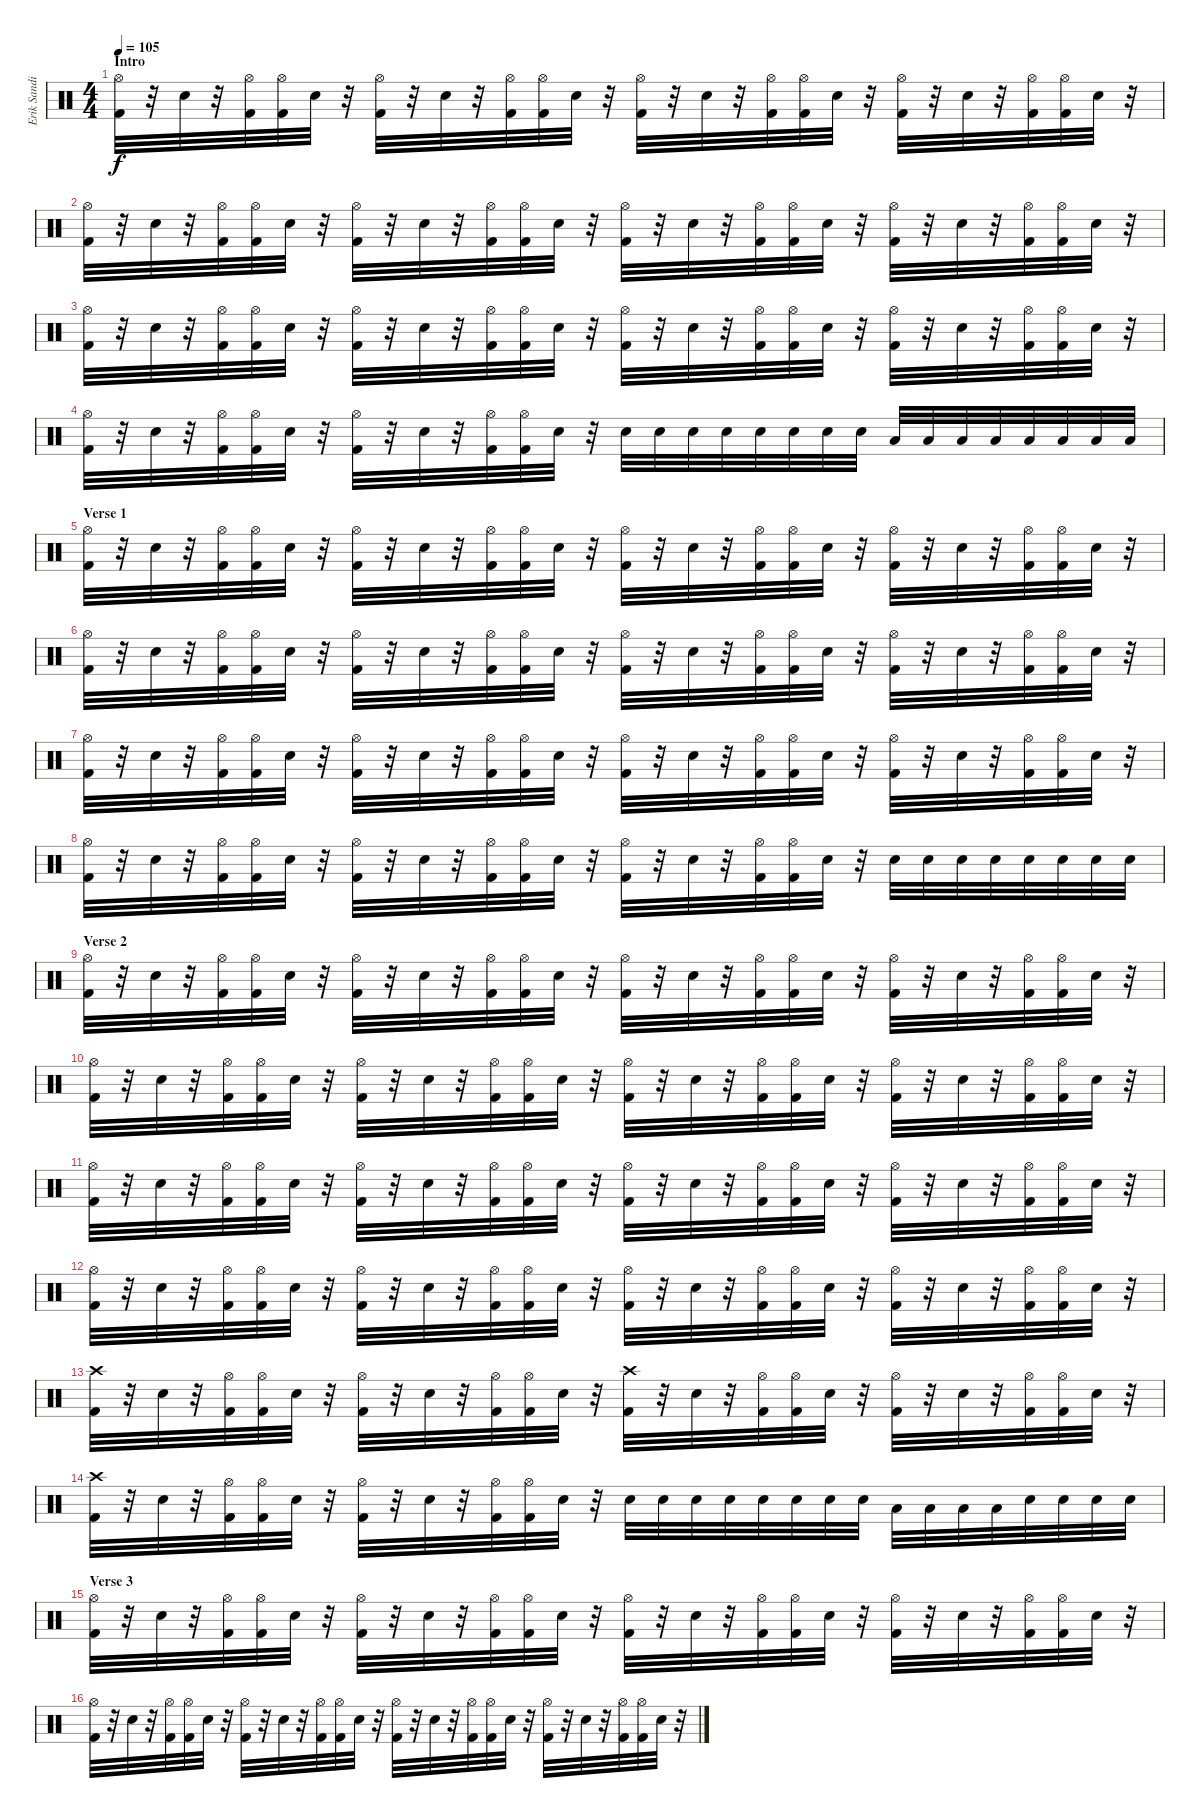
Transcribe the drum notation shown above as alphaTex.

\track ("Erik Sandin" "Erik Sandi") {instrument percussion}
\staff {score}
\articulation defaults
\ts (4 4)
\section ("" "Intro")
\tempo 105
\clef neutral
\ks c
("Hi-Hat (open)" "Kick (hit) 2").32{dy f} r.32 "Snare (hit) 2".32 r.32 ("Hi-Hat (open)" "Kick (hit) 2").32 ("Hi-Hat (open)" "Kick (hit) 2").32 "Snare (hit) 2".32 r.32 ("Hi-Hat (open)" "Kick (hit) 2").32 r.32 "Snare (hit) 2".32 r.32 ("Hi-Hat (open)" "Kick (hit) 2").32 ("Hi-Hat (open)" "Kick (hit) 2").32 "Snare (hit) 2".32 r.32 ("Hi-Hat (open)" "Kick (hit) 2").32 r.32 "Snare (hit) 2".32 r.32 ("Hi-Hat (open)" "Kick (hit) 2").32 ("Hi-Hat (open)" "Kick (hit) 2").32 "Snare (hit) 2".32 r.32 ("Hi-Hat (open)" "Kick (hit) 2").32 r.32 "Snare (hit) 2".32 r.32 ("Hi-Hat (open)" "Kick (hit) 2").32 ("Hi-Hat (open)" "Kick (hit) 2").32 "Snare (hit) 2".32 r.32 |
("Hi-Hat (open)" "Kick (hit) 2").32 r.32 "Snare (hit) 2".32 r.32 ("Hi-Hat (open)" "Kick (hit) 2").32 ("Hi-Hat (open)" "Kick (hit) 2").32 "Snare (hit) 2".32 r.32 ("Hi-Hat (open)" "Kick (hit) 2").32 r.32 "Snare (hit) 2".32 r.32 ("Hi-Hat (open)" "Kick (hit) 2").32 ("Hi-Hat (open)" "Kick (hit) 2").32 "Snare (hit) 2".32 r.32 ("Hi-Hat (open)" "Kick (hit) 2").32 r.32 "Snare (hit) 2".32 r.32 ("Hi-Hat (open)" "Kick (hit) 2").32 ("Hi-Hat (open)" "Kick (hit) 2").32 "Snare (hit) 2".32 r.32 ("Hi-Hat (open)" "Kick (hit) 2").32 r.32 "Snare (hit) 2".32 r.32 ("Hi-Hat (open)" "Kick (hit) 2").32 ("Hi-Hat (open)" "Kick (hit) 2").32 "Snare (hit) 2".32 r.32 |
("Hi-Hat (open)" "Kick (hit) 2").32 r.32 "Snare (hit) 2".32 r.32 ("Hi-Hat (open)" "Kick (hit) 2").32 ("Hi-Hat (open)" "Kick (hit) 2").32 "Snare (hit) 2".32 r.32 ("Hi-Hat (open)" "Kick (hit) 2").32 r.32 "Snare (hit) 2".32 r.32 ("Hi-Hat (open)" "Kick (hit) 2").32 ("Hi-Hat (open)" "Kick (hit) 2").32 "Snare (hit) 2".32 r.32 ("Hi-Hat (open)" "Kick (hit) 2").32 r.32 "Snare (hit) 2".32 r.32 ("Hi-Hat (open)" "Kick (hit) 2").32 ("Hi-Hat (open)" "Kick (hit) 2").32 "Snare (hit) 2".32 r.32 ("Hi-Hat (open)" "Kick (hit) 2").32 r.32 "Snare (hit) 2".32 r.32 ("Hi-Hat (open)" "Kick (hit) 2").32 ("Hi-Hat (open)" "Kick (hit) 2").32 "Snare (hit) 2".32 r.32 |
("Hi-Hat (open)" "Kick (hit) 2").32 r.32 "Snare (hit) 2".32 r.32 ("Hi-Hat (open)" "Kick (hit) 2").32 ("Hi-Hat (open)" "Kick (hit) 2").32 "Snare (hit) 2".32 r.32 ("Hi-Hat (open)" "Kick (hit) 2").32 r.32 "Snare (hit) 2".32 r.32 ("Hi-Hat (open)" "Kick (hit) 2").32 ("Hi-Hat (open)" "Kick (hit) 2").32 "Snare (hit) 2".32 r.32 "Snare (hit) 2".32 "Snare (hit) 2".32 "Snare (hit) 2".32 "Snare (hit) 2".32 "Snare (hit) 2".32 "Snare (hit) 2".32 "Snare (hit) 2".32 "Snare (hit) 2".32 "Low Tom (hit)".32 "Low Tom (hit)".32 "Low Tom (hit)".32 "Low Tom (hit)".32 "Low Tom (hit)".32 "Low Tom (hit)".32 "Low Tom (hit)".32 "Low Tom (hit)".32 |
\section ("" "Verse 1")
("Hi-Hat (open)" "Kick (hit) 2").32 r.32 "Snare (hit) 2".32 r.32 ("Hi-Hat (open)" "Kick (hit) 2").32 ("Hi-Hat (open)" "Kick (hit) 2").32 "Snare (hit) 2".32 r.32 ("Hi-Hat (open)" "Kick (hit) 2").32 r.32 "Snare (hit) 2".32 r.32 ("Hi-Hat (open)" "Kick (hit) 2").32 ("Hi-Hat (open)" "Kick (hit) 2").32 "Snare (hit) 2".32 r.32 ("Hi-Hat (open)" "Kick (hit) 2").32 r.32 "Snare (hit) 2".32 r.32 ("Hi-Hat (open)" "Kick (hit) 2").32 ("Hi-Hat (open)" "Kick (hit) 2").32 "Snare (hit) 2".32 r.32 ("Hi-Hat (open)" "Kick (hit) 2").32 r.32 "Snare (hit) 2".32 r.32 ("Hi-Hat (open)" "Kick (hit) 2").32 ("Hi-Hat (open)" "Kick (hit) 2").32 "Snare (hit) 2".32 r.32 |
("Hi-Hat (open)" "Kick (hit) 2").32 r.32 "Snare (hit) 2".32 r.32 ("Hi-Hat (open)" "Kick (hit) 2").32 ("Hi-Hat (open)" "Kick (hit) 2").32 "Snare (hit) 2".32 r.32 ("Hi-Hat (open)" "Kick (hit) 2").32 r.32 "Snare (hit) 2".32 r.32 ("Hi-Hat (open)" "Kick (hit) 2").32 ("Hi-Hat (open)" "Kick (hit) 2").32 "Snare (hit) 2".32 r.32 ("Hi-Hat (open)" "Kick (hit) 2").32 r.32 "Snare (hit) 2".32 r.32 ("Hi-Hat (open)" "Kick (hit) 2").32 ("Hi-Hat (open)" "Kick (hit) 2").32 "Snare (hit) 2".32 r.32 ("Hi-Hat (open)" "Kick (hit) 2").32 r.32 "Snare (hit) 2".32 r.32 ("Hi-Hat (open)" "Kick (hit) 2").32 ("Hi-Hat (open)" "Kick (hit) 2").32 "Snare (hit) 2".32 r.32 |
("Hi-Hat (open)" "Kick (hit) 2").32 r.32 "Snare (hit) 2".32 r.32 ("Hi-Hat (open)" "Kick (hit) 2").32 ("Hi-Hat (open)" "Kick (hit) 2").32 "Snare (hit) 2".32 r.32 ("Hi-Hat (open)" "Kick (hit) 2").32 r.32 "Snare (hit) 2".32 r.32 ("Hi-Hat (open)" "Kick (hit) 2").32 ("Hi-Hat (open)" "Kick (hit) 2").32 "Snare (hit) 2".32 r.32 ("Hi-Hat (open)" "Kick (hit) 2").32 r.32 "Snare (hit) 2".32 r.32 ("Hi-Hat (open)" "Kick (hit) 2").32 ("Hi-Hat (open)" "Kick (hit) 2").32 "Snare (hit) 2".32 r.32 ("Hi-Hat (open)" "Kick (hit) 2").32 r.32 "Snare (hit) 2".32 r.32 ("Hi-Hat (open)" "Kick (hit) 2").32 ("Hi-Hat (open)" "Kick (hit) 2").32 "Snare (hit) 2".32 r.32 |
("Hi-Hat (open)" "Kick (hit) 2").32 r.32 "Snare (hit) 2".32 r.32 ("Hi-Hat (open)" "Kick (hit) 2").32 ("Hi-Hat (open)" "Kick (hit) 2").32 "Snare (hit) 2".32 r.32 ("Hi-Hat (open)" "Kick (hit) 2").32 r.32 "Snare (hit) 2".32 r.32 ("Hi-Hat (open)" "Kick (hit) 2").32 ("Hi-Hat (open)" "Kick (hit) 2").32 "Snare (hit) 2".32 r.32 ("Hi-Hat (open)" "Kick (hit) 2").32 r.32 "Snare (hit) 2".32 r.32 ("Hi-Hat (open)" "Kick (hit) 2").32 ("Hi-Hat (open)" "Kick (hit) 2").32 "Snare (hit) 2".32 r.32 "Snare (hit) 2".32 "Snare (hit) 2".32 "Snare (hit) 2".32 "Snare (hit) 2".32 "Snare (hit) 2".32 "Snare (hit) 2".32 "Snare (hit) 2".32 "Snare (hit) 2".32 |
\section ("" "Verse 2")
("Hi-Hat (open)" "Kick (hit) 2").32 r.32 "Snare (hit) 2".32 r.32 ("Hi-Hat (open)" "Kick (hit) 2").32 ("Hi-Hat (open)" "Kick (hit) 2").32 "Snare (hit) 2".32 r.32 ("Hi-Hat (open)" "Kick (hit) 2").32 r.32 "Snare (hit) 2".32 r.32 ("Hi-Hat (open)" "Kick (hit) 2").32 ("Hi-Hat (open)" "Kick (hit) 2").32 "Snare (hit) 2".32 r.32 ("Hi-Hat (open)" "Kick (hit) 2").32 r.32 "Snare (hit) 2".32 r.32 ("Hi-Hat (open)" "Kick (hit) 2").32 ("Hi-Hat (open)" "Kick (hit) 2").32 "Snare (hit) 2".32 r.32 ("Hi-Hat (open)" "Kick (hit) 2").32 r.32 "Snare (hit) 2".32 r.32 ("Hi-Hat (open)" "Kick (hit) 2").32 ("Hi-Hat (open)" "Kick (hit) 2").32 "Snare (hit) 2".32 r.32 |
("Hi-Hat (open)" "Kick (hit) 2").32 r.32 "Snare (hit) 2".32 r.32 ("Hi-Hat (open)" "Kick (hit) 2").32 ("Hi-Hat (open)" "Kick (hit) 2").32 "Snare (hit) 2".32 r.32 ("Hi-Hat (open)" "Kick (hit) 2").32 r.32 "Snare (hit) 2".32 r.32 ("Hi-Hat (open)" "Kick (hit) 2").32 ("Hi-Hat (open)" "Kick (hit) 2").32 "Snare (hit) 2".32 r.32 ("Hi-Hat (open)" "Kick (hit) 2").32 r.32 "Snare (hit) 2".32 r.32 ("Hi-Hat (open)" "Kick (hit) 2").32 ("Hi-Hat (open)" "Kick (hit) 2").32 "Snare (hit) 2".32 r.32 ("Hi-Hat (open)" "Kick (hit) 2").32 r.32 "Snare (hit) 2".32 r.32 ("Hi-Hat (open)" "Kick (hit) 2").32 ("Hi-Hat (open)" "Kick (hit) 2").32 "Snare (hit) 2".32 r.32 |
("Hi-Hat (open)" "Kick (hit) 2").32 r.32 "Snare (hit) 2".32 r.32 ("Hi-Hat (open)" "Kick (hit) 2").32 ("Hi-Hat (open)" "Kick (hit) 2").32 "Snare (hit) 2".32 r.32 ("Hi-Hat (open)" "Kick (hit) 2").32 r.32 "Snare (hit) 2".32 r.32 ("Hi-Hat (open)" "Kick (hit) 2").32 ("Hi-Hat (open)" "Kick (hit) 2").32 "Snare (hit) 2".32 r.32 ("Hi-Hat (open)" "Kick (hit) 2").32 r.32 "Snare (hit) 2".32 r.32 ("Hi-Hat (open)" "Kick (hit) 2").32 ("Hi-Hat (open)" "Kick (hit) 2").32 "Snare (hit) 2".32 r.32 ("Hi-Hat (open)" "Kick (hit) 2").32 r.32 "Snare (hit) 2".32 r.32 ("Hi-Hat (open)" "Kick (hit) 2").32 ("Hi-Hat (open)" "Kick (hit) 2").32 "Snare (hit) 2".32 r.32 |
("Hi-Hat (open)" "Kick (hit) 2").32 r.32 "Snare (hit) 2".32 r.32 ("Hi-Hat (open)" "Kick (hit) 2").32 ("Hi-Hat (open)" "Kick (hit) 2").32 "Snare (hit) 2".32 r.32 ("Hi-Hat (open)" "Kick (hit) 2").32 r.32 "Snare (hit) 2".32 r.32 ("Hi-Hat (open)" "Kick (hit) 2").32 ("Hi-Hat (open)" "Kick (hit) 2").32 "Snare (hit) 2".32 r.32 ("Hi-Hat (open)" "Kick (hit) 2").32 r.32 "Snare (hit) 2".32 r.32 ("Hi-Hat (open)" "Kick (hit) 2").32 ("Hi-Hat (open)" "Kick (hit) 2").32 "Snare (hit) 2".32 r.32 ("Hi-Hat (open)" "Kick (hit) 2").32 r.32 "Snare (hit) 2".32 r.32 ("Hi-Hat (open)" "Kick (hit) 2").32 ("Hi-Hat (open)" "Kick (hit) 2").32 "Snare (hit) 2".32 r.32 |
("Crash high (hit)" "Kick (hit) 2").32 r.32 "Snare (hit) 2".32 r.32 ("Hi-Hat (open)" "Kick (hit) 2").32 ("Hi-Hat (open)" "Kick (hit) 2").32 "Snare (hit) 2".32 r.32 ("Hi-Hat (open)" "Kick (hit) 2").32 r.32 "Snare (hit) 2".32 r.32 ("Hi-Hat (open)" "Kick (hit) 2").32 ("Hi-Hat (open)" "Kick (hit) 2").32 "Snare (hit) 2".32 r.32 ("Crash high (hit)" "Kick (hit) 2").32 r.32 "Snare (hit) 2".32 r.32 ("Hi-Hat (open)" "Kick (hit) 2").32 ("Hi-Hat (open)" "Kick (hit) 2").32 "Snare (hit) 2".32 r.32 ("Hi-Hat (open)" "Kick (hit) 2").32 r.32 "Snare (hit) 2".32 r.32 ("Hi-Hat (open)" "Kick (hit) 2").32 ("Hi-Hat (open)" "Kick (hit) 2").32 "Snare (hit) 2".32 r.32 |
("Crash high (hit)" "Kick (hit) 2").32 r.32 "Snare (hit) 2".32 r.32 ("Hi-Hat (open)" "Kick (hit) 2").32 ("Hi-Hat (open)" "Kick (hit) 2").32 "Snare (hit) 2".32 r.32 ("Hi-Hat (open)" "Kick (hit) 2").32 r.32 "Snare (hit) 2".32 r.32 ("Hi-Hat (open)" "Kick (hit) 2").32 ("Hi-Hat (open)" "Kick (hit) 2").32 "Snare (hit) 2".32 r.32 "Snare (hit) 2".32 "Snare (hit) 2".32 "Snare (hit) 2".32 "Snare (hit) 2".32 "Snare (hit) 2".32 "Snare (hit) 2".32 "Snare (hit) 2".32 "Snare (hit) 2".32 "Low Tom (hit)".32 "Low Tom (hit)".32 "Low Tom (hit)".32 "Low Tom (hit)".32 "Snare (hit) 2".32 "Snare (hit) 2".32 "Snare (hit) 2".32 "Snare (hit) 2".32 |
\section ("" "Verse 3")
("Hi-Hat (open)" "Kick (hit) 2").32 r.32 "Snare (hit) 2".32 r.32 ("Hi-Hat (open)" "Kick (hit) 2").32 ("Hi-Hat (open)" "Kick (hit) 2").32 "Snare (hit) 2".32 r.32 ("Hi-Hat (open)" "Kick (hit) 2").32 r.32 "Snare (hit) 2".32 r.32 ("Hi-Hat (open)" "Kick (hit) 2").32 ("Hi-Hat (open)" "Kick (hit) 2").32 "Snare (hit) 2".32 r.32 ("Hi-Hat (open)" "Kick (hit) 2").32 r.32 "Snare (hit) 2".32 r.32 ("Hi-Hat (open)" "Kick (hit) 2").32 ("Hi-Hat (open)" "Kick (hit) 2").32 "Snare (hit) 2".32 r.32 ("Hi-Hat (open)" "Kick (hit) 2").32 r.32 "Snare (hit) 2".32 r.32 ("Hi-Hat (open)" "Kick (hit) 2").32 ("Hi-Hat (open)" "Kick (hit) 2").32 "Snare (hit) 2".32 r.32 |
("Hi-Hat (open)" "Kick (hit) 2").32 r.32 "Snare (hit) 2".32 r.32 ("Hi-Hat (open)" "Kick (hit) 2").32 ("Hi-Hat (open)" "Kick (hit) 2").32 "Snare (hit) 2".32 r.32 ("Hi-Hat (open)" "Kick (hit) 2").32 r.32 "Snare (hit) 2".32 r.32 ("Hi-Hat (open)" "Kick (hit) 2").32 ("Hi-Hat (open)" "Kick (hit) 2").32 "Snare (hit) 2".32 r.32 ("Hi-Hat (open)" "Kick (hit) 2").32 r.32 "Snare (hit) 2".32 r.32 ("Hi-Hat (open)" "Kick (hit) 2").32 ("Hi-Hat (open)" "Kick (hit) 2").32 "Snare (hit) 2".32 r.32 ("Hi-Hat (open)" "Kick (hit) 2").32 r.32 "Snare (hit) 2".32 r.32 ("Hi-Hat (open)" "Kick (hit) 2").32 ("Hi-Hat (open)" "Kick (hit) 2").32 "Snare (hit) 2".32 r.32
